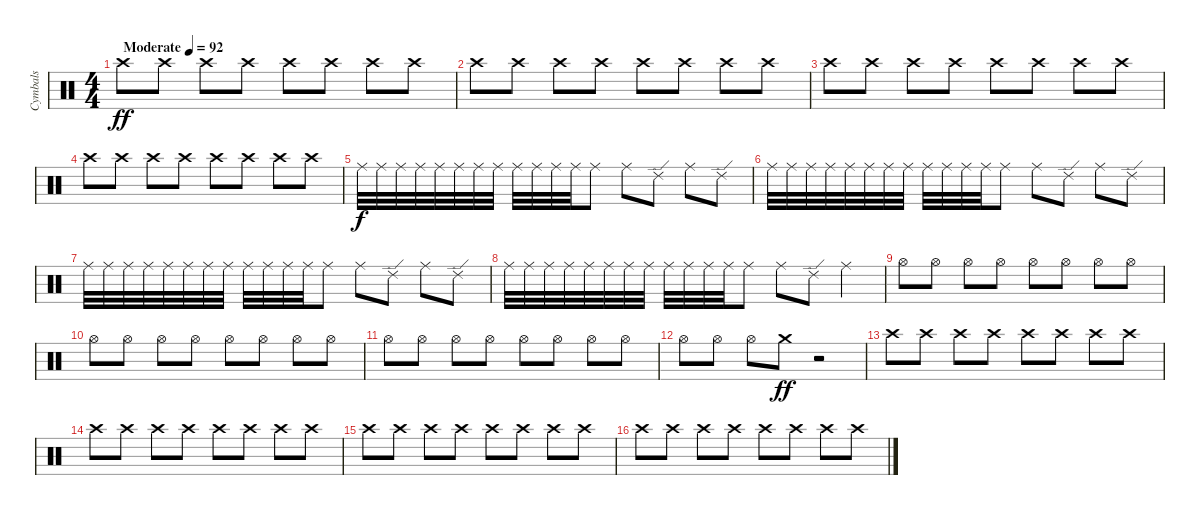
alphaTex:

\track ("Cymbals" "Cymbals") {instrument percussion}
\staff {score}
\articulation defaults
\ts (4 4)
\tempo (92 "Moderate")
\clef neutral
\ks c "Crash high (hit)".8{dy ff} "Crash high (hit)".8 "Crash high (hit)".8 "Crash high (hit)".8 "Crash high (hit)".8 "Crash high (hit)".8 "Crash high (hit)".8 "Crash high (hit)".8
|
"Crash high (hit)".8 "Crash high (hit)".8 "Crash high (hit)".8 "Crash high (hit)".8 "Crash high (hit)".8 "Crash high (hit)".8 "Crash high (hit)".8 "Crash high (hit)".8 |
"Crash high (hit)".8 "Crash high (hit)".8 "Crash high (hit)".8 "Crash high (hit)".8 "Crash high (hit)".8 "Crash high (hit)".8 "Crash high (hit)".8 "Crash high (hit)".8 |
"Crash high (hit)".8 "Crash high (hit)".8 "Crash high (hit)".8 "Crash high (hit)".8 "Crash high (hit)".8 "Crash high (hit)".8 "Crash high (hit)".8 "Crash high (hit)".8 |
"Ride (middle)".32{dy f} "Ride (middle)".32 "Ride (middle)".32 "Ride (middle)".32 "Ride (middle)".32 "Ride (middle)".32 "Ride (middle)".32 "Ride (middle)".32 "Ride (middle)".32 "Ride (middle)".32 "Ride (middle)".32 "Ride (middle)".32 "Ride (middle)".8 "Ride (middle)".8 "Ride (edge) 2".8 "Ride (middle)".8 "Ride (edge) 2".8 |
"Ride (middle)".32 "Ride (middle)".32 "Ride (middle)".32 "Ride (middle)".32 "Ride (middle)".32 "Ride (middle)".32 "Ride (middle)".32 "Ride (middle)".32 "Ride (middle)".32 "Ride (middle)".32 "Ride (middle)".32 "Ride (middle)".32 "Ride (middle)".8 "Ride (middle)".8 "Ride (edge) 2".8 "Ride (middle)".8 "Ride (edge) 2".8 |
"Ride (middle)".32 "Ride (middle)".32 "Ride (middle)".32 "Ride (middle)".32 "Ride (middle)".32 "Ride (middle)".32 "Ride (middle)".32 "Ride (middle)".32 "Ride (middle)".32 "Ride (middle)".32 "Ride (middle)".32 "Ride (middle)".32 "Ride (middle)".8 "Ride (middle)".8 "Ride (edge) 2".8 "Ride (middle)".8 "Ride (edge) 2".8 |
"Ride (middle)".32 "Ride (middle)".32 "Ride (middle)".32 "Ride (middle)".32 "Ride (middle)".32 "Ride (middle)".32 "Ride (middle)".32 "Ride (middle)".32 "Ride (middle)".32 "Ride (middle)".32 "Ride (middle)".32 "Ride (middle)".32 "Ride (middle)".8 "Ride (middle)".8 "Ride (edge) 2".8 "Ride (middle)".4 |
"Hi-Hat (open)".8 "Hi-Hat (open)".8 "Hi-Hat (open)".8 "Hi-Hat (open)".8 "Hi-Hat (open)".8 "Hi-Hat (open)".8 "Hi-Hat (open)".8 "Hi-Hat (open)".8 |
"Hi-Hat (open)".8 "Hi-Hat (open)".8 "Hi-Hat (open)".8 "Hi-Hat (open)".8 "Hi-Hat (open)".8 "Hi-Hat (open)".8 "Hi-Hat (open)".8 "Hi-Hat (open)".8 |
"Hi-Hat (open)".8 "Hi-Hat (open)".8 "Hi-Hat (open)".8 "Hi-Hat (open)".8 "Hi-Hat (open)".8 "Hi-Hat (open)".8 "Hi-Hat (open)".8 "Hi-Hat (open)".8 |
"Hi-Hat (open)".8 "Hi-Hat (open)".8 "Hi-Hat (open)".8 "Crash medium (hit)".8{dy ff} r.2 |
"Crash high (hit)".8 "Crash high (hit)".8 "Crash high (hit)".8 "Crash high (hit)".8 "Crash high (hit)".8 "Crash high (hit)".8 "Crash high (hit)".8 "Crash high (hit)".8 |
"Crash high (hit)".8 "Crash high (hit)".8 "Crash high (hit)".8 "Crash high (hit)".8 "Crash high (hit)".8 "Crash high (hit)".8 "Crash high (hit)".8 "Crash high (hit)".8 |
"Crash high (hit)".8 "Crash high (hit)".8 "Crash high (hit)".8 "Crash high (hit)".8 "Crash high (hit)".8 "Crash high (hit)".8 "Crash high (hit)".8 "Crash high (hit)".8 |
"Crash high (hit)".8 "Crash high (hit)".8 "Crash high (hit)".8 "Crash high (hit)".8 "Crash high (hit)".8 "Crash high (hit)".8 "Crash high (hit)".8 "Crash high (hit)".8
